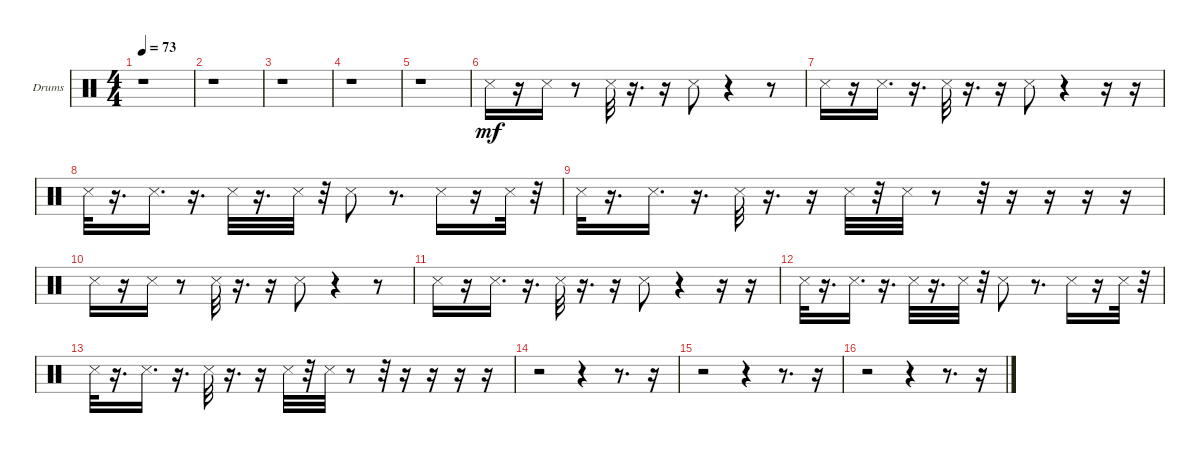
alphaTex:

\bracketExtendMode groupsimilarinstruments
\firstSystemTrackNameOrientation horizontal
\otherSystemsTrackNameOrientation horizontal
\track ("rim" "Drums") {instrument percussion}
\staff {score}
\articulation defaults
\ts (4 4)
\tempo 73
\clef neutral
\ks c
r.1{dy mf} |
r.1 |
r.1 |
r.1 |
r.1 |
"Snare (side stick) 3".16 r.16 "Snare (side stick) 3".16 r.8 "Snare (side stick) 3".32 r.16{d} r.16 "Snare (side stick) 3".8 r.4 r.8 |
"Snare (side stick) 3".16 r.16 "Snare (side stick) 3".16{d} r.16{d} "Snare (side stick) 3".32 r.16{d} r.16 "Snare (side stick) 3".8 r.4 r.16 r.16 |
"Snare (side stick) 3".32 r.16{d} "Snare (side stick) 3".16{d} r.16{d} "Snare (side stick) 3".32 r.16{d} "Snare (side stick) 3".32 r.32 "Snare (side stick) 3".8 r.8{d} "Snare (side stick) 3".16 r.16 "Snare (side stick) 3".32 r.32 |
"Snare (side stick) 3".32 r.16{d} "Snare (side stick) 3".16{d} r.16{d} "Snare (side stick) 3".32 r.16{d} r.16 "Snare (side stick) 3".32 r.32 "Snare (side stick) 3".32 r.8 r.32 r.16 r.16 r.16 r.16 |
"Snare (side stick) 3".16 r.16 "Snare (side stick) 3".16 r.8 "Snare (side stick) 3".32 r.16{d} r.16 "Snare (side stick) 3".8 r.4 r.8 |
"Snare (side stick) 3".16 r.16 "Snare (side stick) 3".16{d} r.16{d} "Snare (side stick) 3".32 r.16{d} r.16 "Snare (side stick) 3".8 r.4 r.16 r.16 |
"Snare (side stick) 3".32 r.16{d} "Snare (side stick) 3".16{d} r.16{d} "Snare (side stick) 3".32 r.16{d} "Snare (side stick) 3".32 r.32 "Snare (side stick) 3".8 r.8{d} "Snare (side stick) 3".16 r.16 "Snare (side stick) 3".32 r.32 |
"Snare (side stick) 3".32 r.16{d} "Snare (side stick) 3".16{d} r.16{d} "Snare (side stick) 3".32 r.16{d} r.16 "Snare (side stick) 3".32 r.32 "Snare (side stick) 3".32 r.8 r.32 r.16 r.16 r.16 r.16 |
r.2 r.4 r.8{d} r.16 |
r.2 r.4 r.8{d} r.16 |
r.2 r.4 r.8{d} r.16
